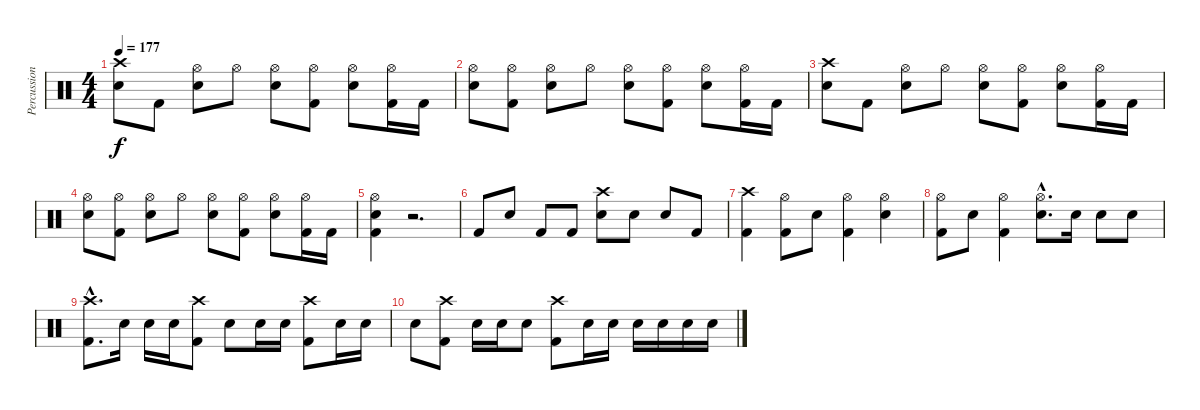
\track ("Percussion" "Percussion") {instrument percussion}
\staff {score}
\articulation defaults
\ts (4 4)
\tempo 177
\clef neutral
\ks c
("Crash high (hit)" "Snare (hit) 2").8{dy f} "Kick (hit) 2".8 ("Hi-Hat (open)" "Snare (hit) 2").8 "Hi-Hat (open)".8 ("Hi-Hat (open)" "Snare (hit) 2").8 ("Hi-Hat (open)" "Kick (hit) 2").8 ("Hi-Hat (open)" "Snare (hit) 2").8 ("Hi-Hat (open)" "Kick (hit) 2").16 "Kick (hit) 2".16 |
("Hi-Hat (open)" "Snare (hit) 2").8 ("Hi-Hat (open)" "Kick (hit) 2").8 ("Hi-Hat (open)" "Snare (hit) 2").8 "Hi-Hat (open)".8 ("Hi-Hat (open)" "Snare (hit) 2").8 ("Hi-Hat (open)" "Kick (hit) 2").8 ("Hi-Hat (open)" "Snare (hit) 2").8 ("Hi-Hat (open)" "Kick (hit) 2").16 "Kick (hit) 2".16 |
("Crash high (hit)" "Snare (hit) 2").8 "Kick (hit) 2".8 ("Hi-Hat (open)" "Snare (hit) 2").8 "Hi-Hat (open)".8 ("Hi-Hat (open)" "Snare (hit) 2").8 ("Hi-Hat (open)" "Kick (hit) 2").8 ("Hi-Hat (open)" "Snare (hit) 2").8 ("Hi-Hat (open)" "Kick (hit) 2").16 "Kick (hit) 2".16 |
("Hi-Hat (open)" "Snare (hit) 2").8 ("Hi-Hat (open)" "Kick (hit) 2").8 ("Hi-Hat (open)" "Snare (hit) 2").8 "Hi-Hat (open)".8 ("Hi-Hat (open)" "Snare (hit) 2").8 ("Hi-Hat (open)" "Kick (hit) 2").8 ("Hi-Hat (open)" "Snare (hit) 2").8 ("Hi-Hat (open)" "Kick (hit) 2").16 "Kick (hit) 2".16 |
("Snare (hit) 2" "Hi-Hat (open)" "Kick (hit) 2").4 r.2{d} |
"Kick (hit) 2".8 "Snare (hit) 2".8 "Kick (hit) 2".8 "Kick (hit) 2".8 ("Crash high (hit)" "Snare (hit) 2").8 "Snare (hit) 2".8 "Snare (hit) 2".8 "Kick (hit) 2".8 |
("Crash high (hit)" "Kick (hit) 2").4 ("Hi-Hat (open)" "Kick (hit) 2").8 "Snare (hit) 2".8 ("Hi-Hat (open)" "Kick (hit) 2").4 ("Hi-Hat (open)" "Snare (hit) 2").4 |
("Hi-Hat (open)" "Kick (hit) 2").8 "Snare (hit) 2".8 ("Hi-Hat (open)" "Kick (hit) 2").4 ("Hi-Hat (open)"{hac} "Snare (hit) 2"{hac}).8{d} "Snare (hit) 2".16 "Snare (hit) 2".8 "Snare (hit) 2".8 |
("Crash high (hit)"{hac} "Kick (hit) 2"{hac}).8{d} "Snare (hit) 2".16 "Snare (hit) 2".16 "Snare (hit) 2".16 ("Crash high (hit)" "Kick (hit) 2").8 "Snare (hit) 2".8 "Snare (hit) 2".16 "Snare (hit) 2".16 ("Crash high (hit)" "Kick (hit) 2").8 "Snare (hit) 2".16 "Snare (hit) 2".16 |
"Snare (hit) 2".8 ("Crash high (hit)" "Kick (hit) 2").8 "Snare (hit) 2".16 "Snare (hit) 2".16 "Snare (hit) 2".8 ("Crash high (hit)" "Kick (hit) 2").8 "Snare (hit) 2".16 "Snare (hit) 2".16 "Snare (hit) 2".16 "Snare (hit) 2".16 "Snare (hit) 2".16 "Snare (hit) 2".16
